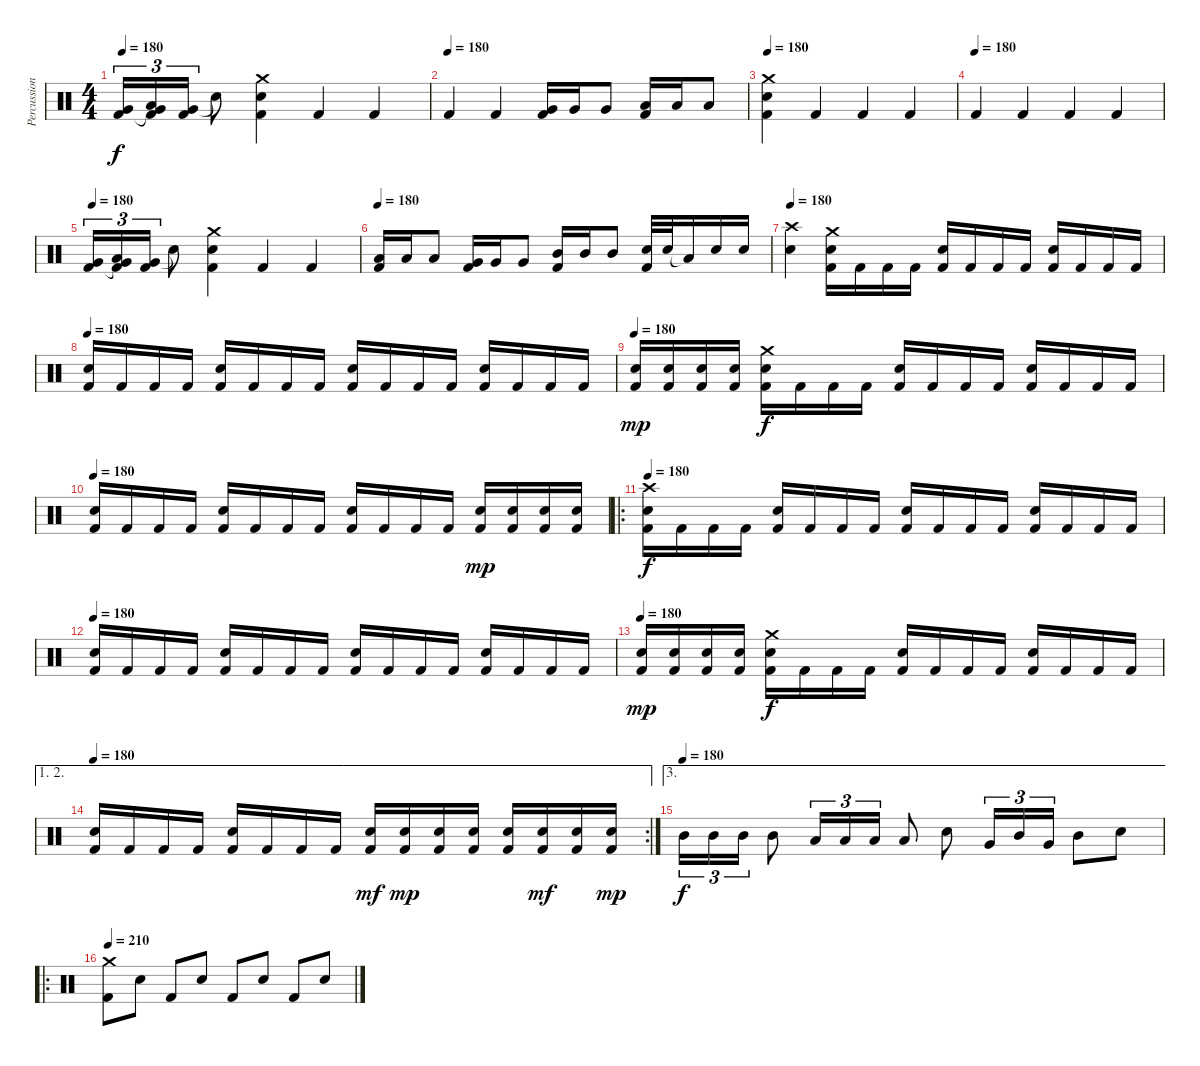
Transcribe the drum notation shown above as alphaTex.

\track ("Percussion" "Percussion") {instrument percussion}
\staff {score}
\articulation defaults
\ts (4 4)
\tempo 180
\clef neutral
\ks c
("Very Low Tom (hit)" "Kick (hit) 2").16{tu (3 2) dy f} ("Low Tom (hit)" "Very Low Tom (hit)"{t} "Kick (hit) 2").16{tu (3 2)} ("Very Low Tom (hit)" "Kick (hit) 2").16{tu (3 2)} "Snare (hit)"{t}.8 ("Crash medium (hit)" "Snare (hit) 2" "Kick (hit) 2").4 "Kick (hit) 2".4 "Kick (hit) 2".4 |
\tempo (180)
"Kick (hit) 2".4 "Kick (hit) 2".4 ("Very Low Tom (hit)" "Kick (hit) 2").16 "Very Low Tom (hit)".16 "Very Low Tom (hit)".8 ("Low Floor Tom (hit)" "Kick (hit) 2").16 "Low Floor Tom (hit)".16 "Low Floor Tom (hit)".8 |
\tempo 180
("Crash medium (hit)" "Snare (hit) 2" "Kick (hit) 2").4 "Kick (hit) 2".4 "Kick (hit) 2".4 "Kick (hit) 2".4 |
\tempo (180)
"Kick (hit) 2".4 "Kick (hit) 2".4 "Kick (hit) 2".4 "Kick (hit) 2".4 |
\tempo 180
("Very Low Tom (hit)" "Kick (hit) 2").16{tu (3 2)} ("Low Tom (hit)" "Very Low Tom (hit)"{t} "Kick (hit) 2").16{tu (3 2)} ("Very Low Tom (hit)" "Kick (hit) 2").16{tu (3 2)} "Snare (hit)"{t}.8 ("Crash medium (hit)" "Snare (hit) 2" "Kick (hit) 2").4 "Kick (hit) 2".4 "Kick (hit) 2".4 |
\tempo 180
("Low Tom (hit)" "Kick (hit) 2").16 "Low Tom (hit)".16 "Low Tom (hit)".8 ("Very Low Tom (hit)" "Kick (hit) 2").16 "Very Low Tom (hit)".16 "Very Low Tom (hit)".8 ("Mid Tom (hit)" "Kick (hit) 2").16 "Mid Tom (hit)".16 "Mid Tom (hit)".8 ("Snare (hit) 2" "Kick (hit) 2").32 "Snare (hit) 2".32 "Low Tom (hit)"{t}.16 "Snare (hit) 2".16 "Snare (hit) 2".16 |
\tempo 180
("Crash high (hit)" "Snare (hit) 2").4 ("Crash medium (hit)" "Snare (hit) 2" "Kick (hit) 2").16 "Kick (hit) 2".16 "Kick (hit) 2".16 "Kick (hit) 2".16 ("Snare (hit) 2" "Kick (hit) 2").16 "Kick (hit) 2".16 "Kick (hit) 2".16 "Kick (hit) 2".16 ("Snare (hit) 2" "Kick (hit) 2").16 "Kick (hit) 2".16 "Kick (hit) 2".16 "Kick (hit) 2".16 |
\tempo 180
("Snare (hit) 2" "Kick (hit) 2").16 "Kick (hit) 2".16 "Kick (hit) 2".16 "Kick (hit) 2".16 ("Snare (hit) 2" "Kick (hit) 2").16 "Kick (hit) 2".16 "Kick (hit) 2".16 "Kick (hit) 2".16 ("Snare (hit) 2" "Kick (hit) 2").16 "Kick (hit) 2".16 "Kick (hit) 2".16 "Kick (hit) 2".16 ("Snare (hit) 2" "Kick (hit) 2").16 "Kick (hit) 2".16 "Kick (hit) 2".16 "Kick (hit) 2".16 |
\tempo 180
("Snare (hit) 2" "Kick (hit) 2").16{dy mp} ("Snare (hit) 2" "Kick (hit) 2").16 ("Snare (hit) 2" "Kick (hit) 2").16 ("Snare (hit) 2" "Kick (hit) 2").16 ("Crash medium (hit)" "Snare (hit) 2" "Kick (hit) 2").16{dy f} "Kick (hit) 2".16 "Kick (hit) 2".16 "Kick (hit) 2".16 ("Snare (hit) 2" "Kick (hit) 2").16 "Kick (hit) 2".16 "Kick (hit) 2".16 "Kick (hit) 2".16 ("Snare (hit) 2" "Kick (hit) 2").16 "Kick (hit) 2".16 "Kick (hit) 2".16 "Kick (hit) 2".16 |
\tempo 180
("Snare (hit) 2" "Kick (hit) 2").16 "Kick (hit) 2".16 "Kick (hit) 2".16 "Kick (hit) 2".16 ("Snare (hit) 2" "Kick (hit) 2").16 "Kick (hit) 2".16 "Kick (hit) 2".16 "Kick (hit) 2".16 ("Snare (hit) 2" "Kick (hit) 2").16 "Kick (hit) 2".16 "Kick (hit) 2".16 "Kick (hit) 2".16 ("Snare (hit) 2" "Kick (hit) 2").16{dy mp} ("Snare (hit) 2" "Kick (hit) 2").16 ("Snare (hit) 2" "Kick (hit) 2").16 ("Snare (hit) 2" "Kick (hit) 2").16 |
\ro
\tempo 180
("Crash high (hit)" "Snare (hit) 2" "Kick (hit) 2").16{dy f} "Kick (hit) 2".16 "Kick (hit) 2".16 "Kick (hit) 2".16 ("Snare (hit) 2" "Kick (hit) 2").16 "Kick (hit) 2".16 "Kick (hit) 2".16 "Kick (hit) 2".16 ("Snare (hit) 2" "Kick (hit) 2").16 "Kick (hit) 2".16 "Kick (hit) 2".16 "Kick (hit) 2".16 ("Snare (hit) 2" "Kick (hit) 2").16 "Kick (hit) 2".16 "Kick (hit) 2".16 "Kick (hit) 2".16 |
\tempo 180
("Snare (hit) 2" "Kick (hit) 2").16 "Kick (hit) 2".16 "Kick (hit) 2".16 "Kick (hit) 2".16 ("Snare (hit) 2" "Kick (hit) 2").16 "Kick (hit) 2".16 "Kick (hit) 2".16 "Kick (hit) 2".16 ("Snare (hit) 2" "Kick (hit) 2").16 "Kick (hit) 2".16 "Kick (hit) 2".16 "Kick (hit) 2".16 ("Snare (hit) 2" "Kick (hit) 2").16 "Kick (hit) 2".16 "Kick (hit) 2".16 "Kick (hit) 2".16 |
\tempo 180
("Snare (hit) 2" "Kick (hit) 2").16{dy mp} ("Snare (hit) 2" "Kick (hit) 2").16 ("Snare (hit) 2" "Kick (hit) 2").16 ("Snare (hit) 2" "Kick (hit) 2").16 ("Crash medium (hit)" "Snare (hit) 2" "Kick (hit) 2").16{dy f} "Kick (hit) 2".16 "Kick (hit) 2".16 "Kick (hit) 2".16 ("Snare (hit) 2" "Kick (hit) 2").16 "Kick (hit) 2".16 "Kick (hit) 2".16 "Kick (hit) 2".16 ("Snare (hit) 2" "Kick (hit) 2").16 "Kick (hit) 2".16 "Kick (hit) 2".16 "Kick (hit) 2".16 |
\ae (1 2)
\rc 2
\tempo 180
("Snare (hit) 2" "Kick (hit) 2").16 "Kick (hit) 2".16 "Kick (hit) 2".16 "Kick (hit) 2".16 ("Snare (hit) 2" "Kick (hit) 2").16 "Kick (hit) 2".16 "Kick (hit) 2".16 "Kick (hit) 2".16 ("Snare (hit) 2" "Kick (hit) 2").16{dy mf} ("Snare (hit) 2" "Kick (hit) 2").16{dy mp} ("Snare (hit) 2" "Kick (hit) 2").16 ("Snare (hit) 2" "Kick (hit) 2").16 ("Snare (hit) 2" "Kick (hit) 2").16 ("Snare (hit) 2" "Kick (hit) 2").16{dy mf} ("Snare (hit) 2" "Kick (hit) 2").16 ("Snare (hit) 2" "Kick (hit) 2").16{dy mp} |
\ae 3
\tempo (180)
"Mid Tom (hit)".16{tu (3 2) dy f} "Mid Tom (hit)".16{tu (3 2)} "Mid Tom (hit)".16{tu (3 2)} "Mid Tom (hit)".8 "Low Tom (hit)".16{tu (3 2)} "Low Tom (hit)".16{tu (3 2)} "Low Tom (hit)".16{tu (3 2)} "Low Tom (hit)".8 "Snare (hit) 2".8 "Very Low Tom (hit)".16{tu (3 2)} "Mid Tom (hit)".16{tu (3 2)} "Very Low Tom (hit)".16{tu (3 2)} "Mid Tom (hit)".8 "Snare (hit) 2".8 |
\ro
\tempo 210
("Crash medium (hit)" "Kick (hit) 2").8 "Snare (hit) 2".8 "Kick (hit) 2".8 "Snare (hit) 2".8 "Kick (hit) 2".8 "Snare (hit) 2".8 "Kick (hit) 2".8 "Snare (hit) 2".8
